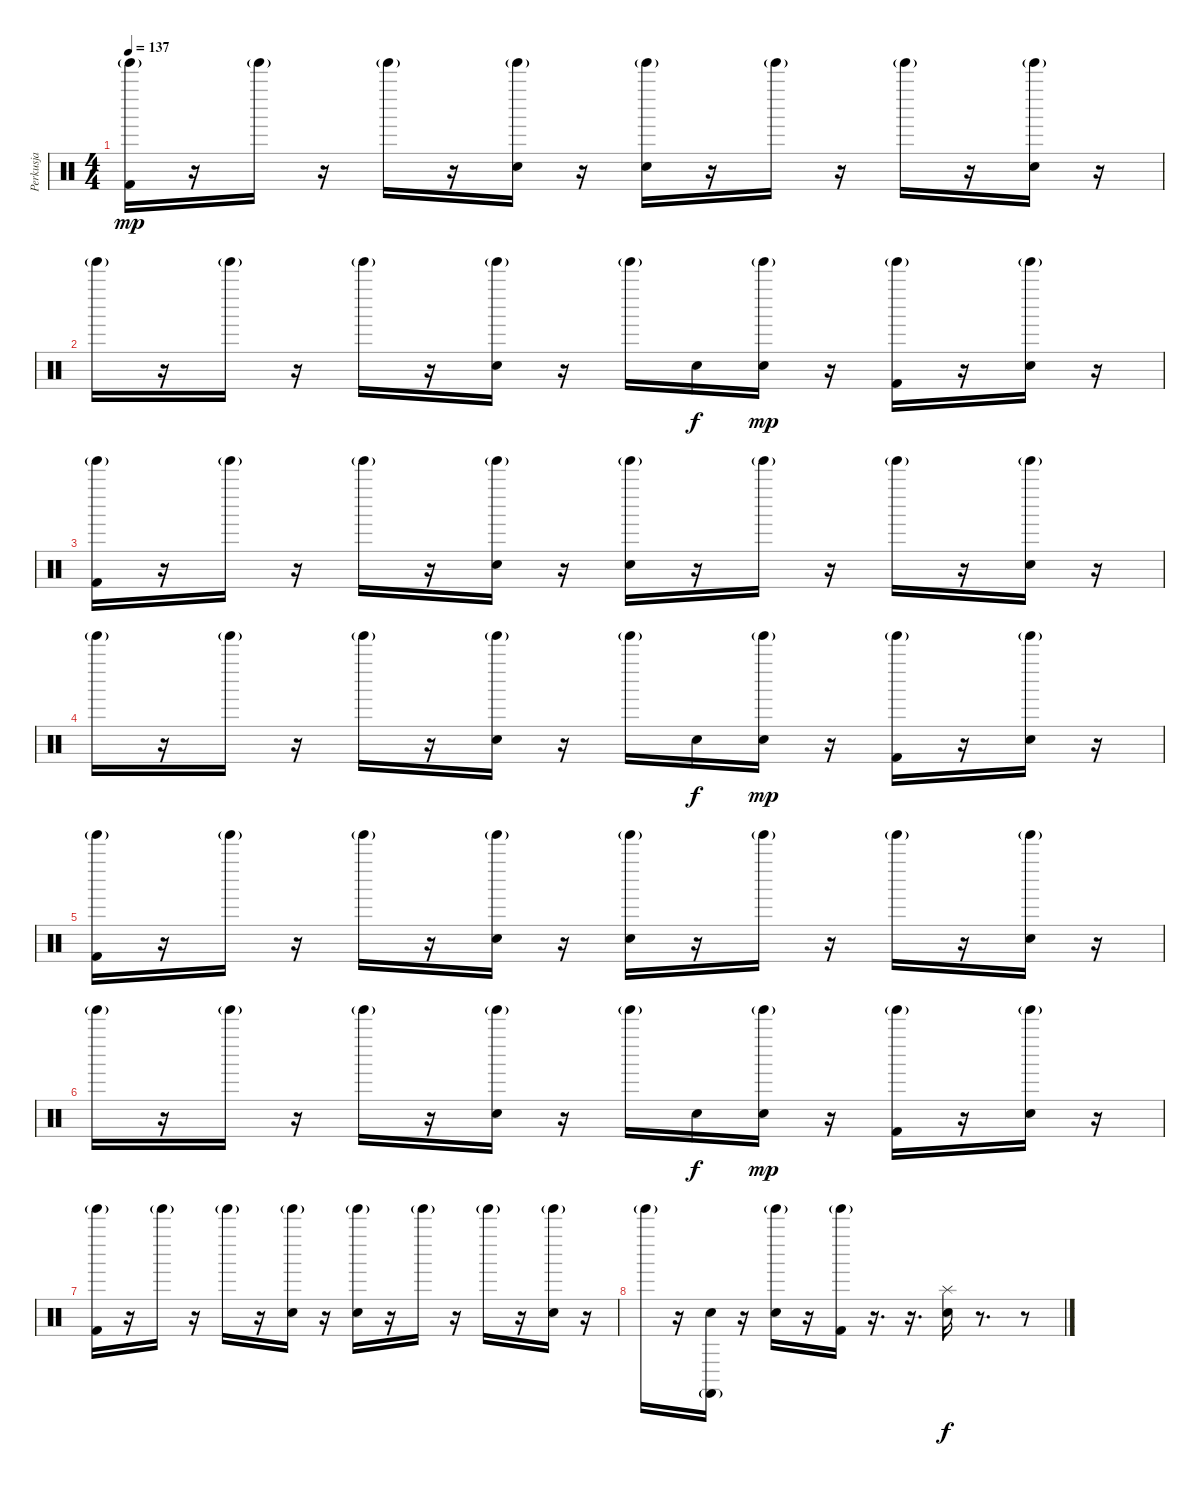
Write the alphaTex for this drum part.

\track ("Perkusja" "Perkusja") {instrument percussion}
\staff {score}
\articulation defaults
\ts (4 4)
\tempo 137
\clef neutral
\ks c
("Kick (hit) 2" "Tinkle Bell (hit)"{g}).16{dy mp} r.16 "Tinkle Bell (hit)"{g}.16 r.16 "Tinkle Bell (hit)"{g}.16 r.16 ("Electric Snare (hit)" "Tinkle Bell (hit)"{g}).16 r.16 ("Electric Snare (hit)" "Tinkle Bell (hit)"{g}).16 r.16 "Tinkle Bell (hit)"{g}.16 r.16 "Tinkle Bell (hit)"{g}.16 r.16 ("Electric Snare (hit)" "Tinkle Bell (hit)"{g}).16 r.16 |
"Tinkle Bell (hit)"{g}.16 r.16 "Tinkle Bell (hit)"{g}.16 r.16 "Tinkle Bell (hit)"{g}.16 r.16 ("Electric Snare (hit)" "Tinkle Bell (hit)"{g}).16 r.16 "Tinkle Bell (hit)"{g}.16 "Electric Snare (hit)".16{dy f} ("Electric Snare (hit)" "Tinkle Bell (hit)"{g}).16{dy mp} r.16 ("Kick (hit) 2" "Tinkle Bell (hit)"{g}).16 r.16 ("Electric Snare (hit)" "Tinkle Bell (hit)"{g}).16 r.16 |
("Kick (hit) 2" "Tinkle Bell (hit)"{g}).16 r.16 "Tinkle Bell (hit)"{g}.16 r.16 "Tinkle Bell (hit)"{g}.16 r.16 ("Electric Snare (hit)" "Tinkle Bell (hit)"{g}).16 r.16 ("Electric Snare (hit)" "Tinkle Bell (hit)"{g}).16 r.16 "Tinkle Bell (hit)"{g}.16 r.16 "Tinkle Bell (hit)"{g}.16 r.16 ("Electric Snare (hit)" "Tinkle Bell (hit)"{g}).16 r.16 |
"Tinkle Bell (hit)"{g}.16 r.16 "Tinkle Bell (hit)"{g}.16 r.16 "Tinkle Bell (hit)"{g}.16 r.16 ("Electric Snare (hit)" "Tinkle Bell (hit)"{g}).16 r.16 "Tinkle Bell (hit)"{g}.16 "Electric Snare (hit)".16{dy f} ("Electric Snare (hit)" "Tinkle Bell (hit)"{g}).16{dy mp} r.16 ("Kick (hit) 2" "Tinkle Bell (hit)"{g}).16 r.16 ("Electric Snare (hit)" "Tinkle Bell (hit)"{g}).16 r.16 |
("Kick (hit) 2" "Tinkle Bell (hit)"{g}).16 r.16 "Tinkle Bell (hit)"{g}.16 r.16 "Tinkle Bell (hit)"{g}.16 r.16 ("Electric Snare (hit)" "Tinkle Bell (hit)"{g}).16 r.16 ("Electric Snare (hit)" "Tinkle Bell (hit)"{g}).16 r.16 "Tinkle Bell (hit)"{g}.16 r.16 "Tinkle Bell (hit)"{g}.16 r.16 ("Electric Snare (hit)" "Tinkle Bell (hit)"{g}).16 r.16 |
"Tinkle Bell (hit)"{g}.16 r.16 "Tinkle Bell (hit)"{g}.16 r.16 "Tinkle Bell (hit)"{g}.16 r.16 ("Electric Snare (hit)" "Tinkle Bell (hit)"{g}).16 r.16 "Tinkle Bell (hit)"{g}.16 "Electric Snare (hit)".16{dy f} ("Electric Snare (hit)" "Tinkle Bell (hit)"{g}).16{dy mp} r.16 ("Kick (hit) 2" "Tinkle Bell (hit)"{g}).16 r.16 ("Electric Snare (hit)" "Tinkle Bell (hit)"{g}).16 r.16 |
("Kick (hit) 2" "Tinkle Bell (hit)"{g}).16 r.16 "Tinkle Bell (hit)"{g}.16 r.16 "Tinkle Bell (hit)"{g}.16 r.16 ("Electric Snare (hit)" "Tinkle Bell (hit)"{g}).16 r.16 ("Electric Snare (hit)" "Tinkle Bell (hit)"{g}).16 r.16 "Tinkle Bell (hit)"{g}.16 r.16 "Tinkle Bell (hit)"{g}.16 r.16 ("Electric Snare (hit)" "Tinkle Bell (hit)"{g}).16 r.16 |
"Tinkle Bell (hit)"{g}.16 r.16 ("Electric Snare (hit)" "Castanets (hit)"{g}).16 r.16 ("Electric Snare (hit)" "Tinkle Bell (hit)"{g}).16 r.16 ("Kick (hit) 2" "Tinkle Bell (hit)"{g}).16 r.16{d} r.16{d} ("Electric Snare (hit)" "Splash (hit)").16{dy f} r.8{d} r.8
